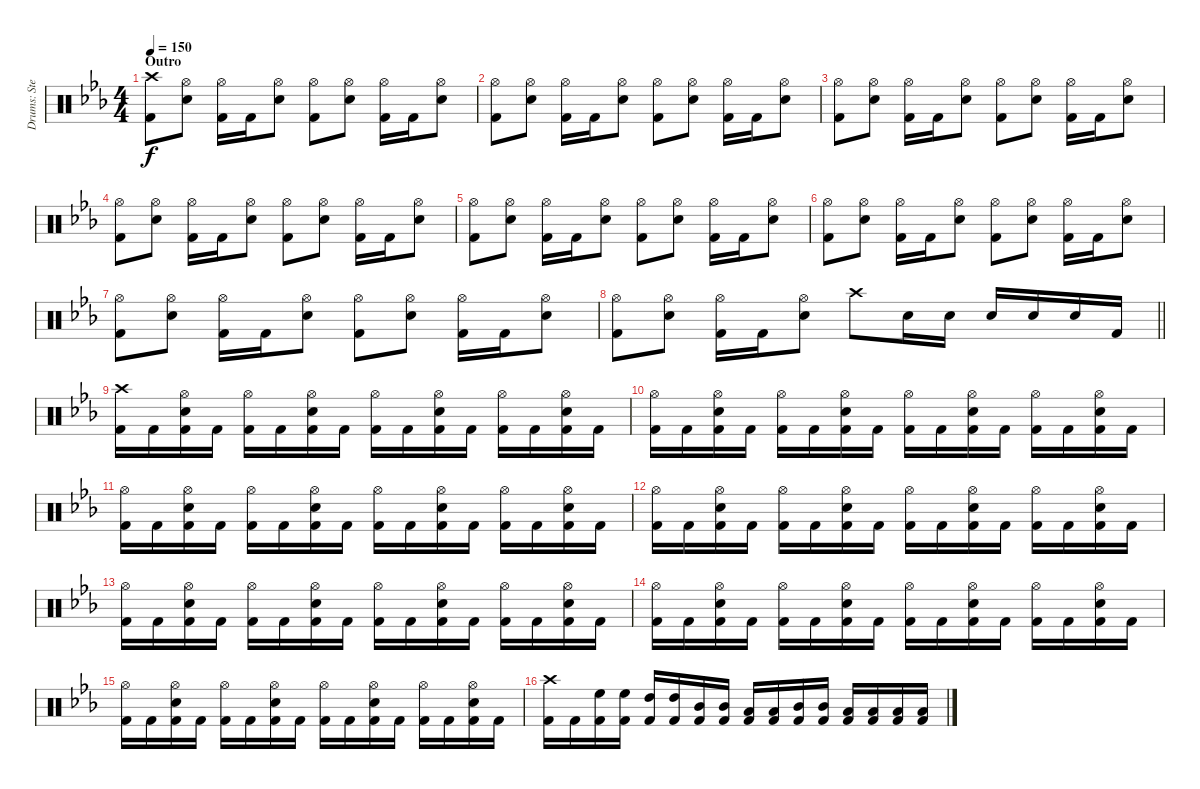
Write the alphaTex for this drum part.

\track ("Drums: Stefan Svantesson" "Drums: Ste") {instrument percussion}
\staff {score}
\articulation defaults
\ts (4 4)
\section ("" "Outro")
\tempo 150
\clef neutral
\ks cminor
("Crash high (hit)" "Kick (hit) 2").8{dy f} ("Hi-Hat (open)" "Electric Snare (hit)").8 ("Hi-Hat (open)" "Kick (hit) 2").16 "Kick (hit) 2".16 ("Hi-Hat (open)" "Electric Snare (hit)").8 ("Hi-Hat (open)" "Kick (hit) 2").8 ("Hi-Hat (open)" "Electric Snare (hit)").8 ("Hi-Hat (open)" "Kick (hit) 2").16 "Kick (hit) 2".16 ("Hi-Hat (open)" "Electric Snare (hit)").8 |
("Hi-Hat (open)" "Kick (hit) 2").8 ("Hi-Hat (open)" "Electric Snare (hit)").8 ("Hi-Hat (open)" "Kick (hit) 2").16 "Kick (hit) 2".16 ("Hi-Hat (open)" "Electric Snare (hit)").8 ("Hi-Hat (open)" "Kick (hit) 2").8 ("Hi-Hat (open)" "Electric Snare (hit)").8 ("Hi-Hat (open)" "Kick (hit) 2").16 "Kick (hit) 2".16 ("Hi-Hat (open)" "Electric Snare (hit)").8 |
("Hi-Hat (open)" "Kick (hit) 2").8 ("Hi-Hat (open)" "Electric Snare (hit)").8 ("Hi-Hat (open)" "Kick (hit) 2").16 "Kick (hit) 2".16 ("Hi-Hat (open)" "Electric Snare (hit)").8 ("Hi-Hat (open)" "Kick (hit) 2").8 ("Hi-Hat (open)" "Electric Snare (hit)").8 ("Hi-Hat (open)" "Kick (hit) 2").16 "Kick (hit) 2".16 ("Hi-Hat (open)" "Electric Snare (hit)").8 |
("Hi-Hat (open)" "Kick (hit) 2").8 ("Hi-Hat (open)" "Electric Snare (hit)").8 ("Hi-Hat (open)" "Kick (hit) 2").16 "Kick (hit) 2".16 ("Hi-Hat (open)" "Electric Snare (hit)").8 ("Hi-Hat (open)" "Kick (hit) 2").8 ("Hi-Hat (open)" "Electric Snare (hit)").8 ("Hi-Hat (open)" "Kick (hit) 2").16 "Kick (hit) 2".16 ("Hi-Hat (open)" "Electric Snare (hit)").8 |
("Hi-Hat (open)" "Kick (hit) 2").8 ("Hi-Hat (open)" "Electric Snare (hit)").8 ("Hi-Hat (open)" "Kick (hit) 2").16 "Kick (hit) 2".16 ("Hi-Hat (open)" "Electric Snare (hit)").8 ("Hi-Hat (open)" "Kick (hit) 2").8 ("Hi-Hat (open)" "Electric Snare (hit)").8 ("Hi-Hat (open)" "Kick (hit) 2").16 "Kick (hit) 2".16 ("Hi-Hat (open)" "Electric Snare (hit)").8 |
("Hi-Hat (open)" "Kick (hit) 2").8 ("Hi-Hat (open)" "Electric Snare (hit)").8 ("Hi-Hat (open)" "Kick (hit) 2").16 "Kick (hit) 2".16 ("Hi-Hat (open)" "Electric Snare (hit)").8 ("Hi-Hat (open)" "Kick (hit) 2").8 ("Hi-Hat (open)" "Electric Snare (hit)").8 ("Hi-Hat (open)" "Kick (hit) 2").16 "Kick (hit) 2".16 ("Hi-Hat (open)" "Electric Snare (hit)").8 |
("Hi-Hat (open)" "Kick (hit) 2").8 ("Hi-Hat (open)" "Electric Snare (hit)").8 ("Hi-Hat (open)" "Kick (hit) 2").16 "Kick (hit) 2".16 ("Hi-Hat (open)" "Electric Snare (hit)").8 ("Hi-Hat (open)" "Kick (hit) 2").8 ("Hi-Hat (open)" "Electric Snare (hit)").8 ("Hi-Hat (open)" "Kick (hit) 2").16 "Kick (hit) 2".16 ("Hi-Hat (open)" "Electric Snare (hit)").8 |
\barLineRight lightlight
("Hi-Hat (open)" "Kick (hit) 2").8 ("Hi-Hat (open)" "Electric Snare (hit)").8 ("Hi-Hat (open)" "Kick (hit) 2").16 "Kick (hit) 2".16 ("Hi-Hat (open)" "Electric Snare (hit)").8 "Crash high (hit)".8 "Electric Snare (hit)".16 "Electric Snare (hit)".16 "Electric Snare (hit)".16 "Electric Snare (hit)".16 "Electric Snare (hit)".16 "Kick (hit) 2".16 |
("Crash high (hit)" "Kick (hit) 2").16 "Kick (hit) 2".16 ("Hi-Hat (open)" "Electric Snare (hit)" "Kick (hit) 2").16 "Kick (hit) 2".16 ("Hi-Hat (open)" "Kick (hit) 2").16 "Kick (hit) 2".16 ("Hi-Hat (open)" "Electric Snare (hit)" "Kick (hit) 2").16 "Kick (hit) 2".16 ("Hi-Hat (open)" "Kick (hit) 2").16 "Kick (hit) 2".16 ("Hi-Hat (open)" "Electric Snare (hit)" "Kick (hit) 2").16 "Kick (hit) 2".16 ("Hi-Hat (open)" "Kick (hit) 2").16 "Kick (hit) 2".16 ("Hi-Hat (open)" "Electric Snare (hit)" "Kick (hit) 2").16 "Kick (hit) 2".16 |
("Hi-Hat (open)" "Kick (hit) 2").16 "Kick (hit) 2".16 ("Hi-Hat (open)" "Electric Snare (hit)" "Kick (hit) 2").16 "Kick (hit) 2".16 ("Hi-Hat (open)" "Kick (hit) 2").16 "Kick (hit) 2".16 ("Hi-Hat (open)" "Electric Snare (hit)" "Kick (hit) 2").16 "Kick (hit) 2".16 ("Hi-Hat (open)" "Kick (hit) 2").16 "Kick (hit) 2".16 ("Hi-Hat (open)" "Electric Snare (hit)" "Kick (hit) 2").16 "Kick (hit) 2".16 ("Hi-Hat (open)" "Kick (hit) 2").16 "Kick (hit) 2".16 ("Hi-Hat (open)" "Electric Snare (hit)" "Kick (hit) 2").16 "Kick (hit) 2".16 |
("Hi-Hat (open)" "Kick (hit) 2").16 "Kick (hit) 2".16 ("Hi-Hat (open)" "Electric Snare (hit)" "Kick (hit) 2").16 "Kick (hit) 2".16 ("Hi-Hat (open)" "Kick (hit) 2").16 "Kick (hit) 2".16 ("Hi-Hat (open)" "Electric Snare (hit)" "Kick (hit) 2").16 "Kick (hit) 2".16 ("Hi-Hat (open)" "Kick (hit) 2").16 "Kick (hit) 2".16 ("Hi-Hat (open)" "Electric Snare (hit)" "Kick (hit) 2").16 "Kick (hit) 2".16 ("Hi-Hat (open)" "Kick (hit) 2").16 "Kick (hit) 2".16 ("Hi-Hat (open)" "Electric Snare (hit)" "Kick (hit) 2").16 "Kick (hit) 2".16 |
("Hi-Hat (open)" "Kick (hit) 2").16 "Kick (hit) 2".16 ("Hi-Hat (open)" "Electric Snare (hit)" "Kick (hit) 2").16 "Kick (hit) 2".16 ("Hi-Hat (open)" "Kick (hit) 2").16 "Kick (hit) 2".16 ("Hi-Hat (open)" "Electric Snare (hit)" "Kick (hit) 2").16 "Kick (hit) 2".16 ("Hi-Hat (open)" "Kick (hit) 2").16 "Kick (hit) 2".16 ("Hi-Hat (open)" "Electric Snare (hit)" "Kick (hit) 2").16 "Kick (hit) 2".16 ("Hi-Hat (open)" "Kick (hit) 2").16 "Kick (hit) 2".16 ("Hi-Hat (open)" "Electric Snare (hit)" "Kick (hit) 2").16 "Kick (hit) 2".16 |
("Hi-Hat (open)" "Kick (hit) 2").16 "Kick (hit) 2".16 ("Hi-Hat (open)" "Electric Snare (hit)" "Kick (hit) 2").16 "Kick (hit) 2".16 ("Hi-Hat (open)" "Kick (hit) 2").16 "Kick (hit) 2".16 ("Hi-Hat (open)" "Electric Snare (hit)" "Kick (hit) 2").16 "Kick (hit) 2".16 ("Hi-Hat (open)" "Kick (hit) 2").16 "Kick (hit) 2".16 ("Hi-Hat (open)" "Electric Snare (hit)" "Kick (hit) 2").16 "Kick (hit) 2".16 ("Hi-Hat (open)" "Kick (hit) 2").16 "Kick (hit) 2".16 ("Hi-Hat (open)" "Electric Snare (hit)" "Kick (hit) 2").16 "Kick (hit) 2".16 |
("Hi-Hat (open)" "Kick (hit) 2").16 "Kick (hit) 2".16 ("Hi-Hat (open)" "Electric Snare (hit)" "Kick (hit) 2").16 "Kick (hit) 2".16 ("Hi-Hat (open)" "Kick (hit) 2").16 "Kick (hit) 2".16 ("Hi-Hat (open)" "Electric Snare (hit)" "Kick (hit) 2").16 "Kick (hit) 2".16 ("Hi-Hat (open)" "Kick (hit) 2").16 "Kick (hit) 2".16 ("Hi-Hat (open)" "Electric Snare (hit)" "Kick (hit) 2").16 "Kick (hit) 2".16 ("Hi-Hat (open)" "Kick (hit) 2").16 "Kick (hit) 2".16 ("Hi-Hat (open)" "Electric Snare (hit)" "Kick (hit) 2").16 "Kick (hit) 2".16 |
("Hi-Hat (open)" "Kick (hit) 2").16 "Kick (hit) 2".16 ("Hi-Hat (open)" "Electric Snare (hit)" "Kick (hit) 2").16 "Kick (hit) 2".16 ("Hi-Hat (open)" "Kick (hit) 2").16 "Kick (hit) 2".16 ("Hi-Hat (open)" "Electric Snare (hit)" "Kick (hit) 2").16 "Kick (hit) 2".16 ("Hi-Hat (open)" "Kick (hit) 2").16 "Kick (hit) 2".16 ("Hi-Hat (open)" "Electric Snare (hit)" "Kick (hit) 2").16 "Kick (hit) 2".16 ("Hi-Hat (open)" "Kick (hit) 2").16 "Kick (hit) 2".16 ("Hi-Hat (open)" "Electric Snare (hit)" "Kick (hit) 2").16 "Kick (hit) 2".16 |
("Crash high (hit)" "Kick (hit) 2").16 "Kick (hit) 2".16 ("High Floor Tom (hit)" "Kick (hit) 2").16 ("High Floor Tom (hit)" "Kick (hit) 2").16 ("High Tom (hit)" "Kick (hit) 2").16 ("High Tom (hit)" "Kick (hit) 2").16 ("Mid Tom (hit)" "Kick (hit) 2").16 ("Mid Tom (hit)" "Kick (hit) 2").16 ("Low Tom (hit)" "Kick (hit) 2").16 ("Low Tom (hit)" "Kick (hit) 2").16 ("Mid Tom (hit)" "Kick (hit) 2").16 ("Mid Tom (hit)" "Kick (hit) 2").16 ("Low Tom (hit)" "Kick (hit) 2").16 ("Low Tom (hit)" "Kick (hit) 2").16 ("Low Tom (hit)" "Kick (hit) 2").16 ("Low Tom (hit)" "Kick (hit) 2").16
